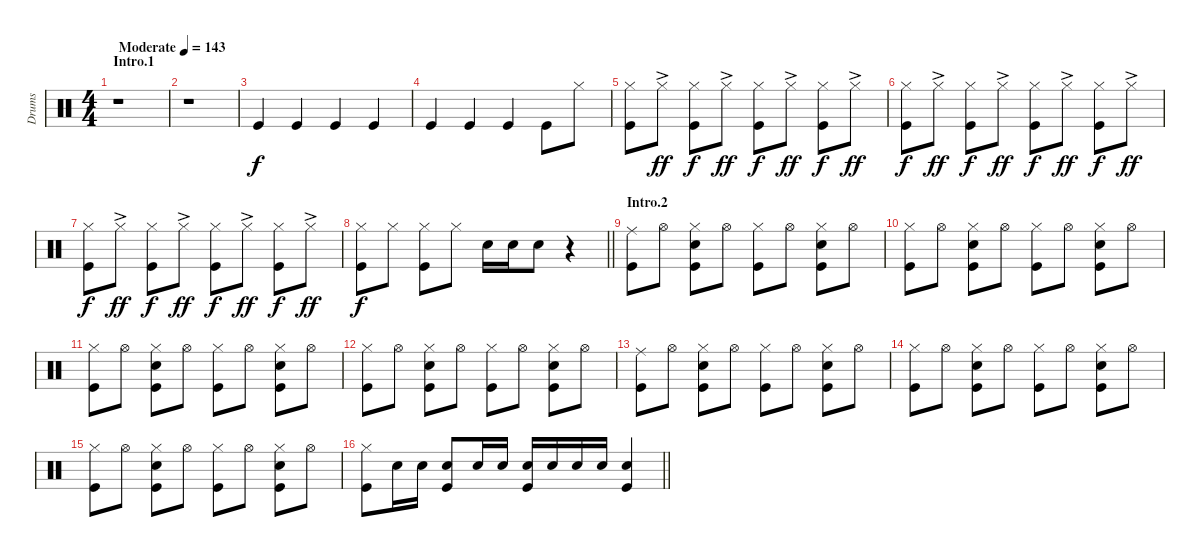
\track ("Drums" "Drums") {instrument percussion}
\staff {score}
\articulation defaults
\ts (4 4)
\section ("" "Intro.1")
\tempo (143 "Moderate")
\clef neutral
\ks c
r.1{dy f} |
r.1 |
"Kick (hit)".4 "Kick (hit)".4 "Kick (hit)".4 "Kick (hit)".4 |
"Kick (hit)".4 "Kick (hit)".4 "Kick (hit)".4 "Kick (hit)".8 "Hi-Hat (closed)".8 |
("Hi-Hat (closed)" "Kick (hit)").8 "Hi-Hat (closed)"{ac}.8{dy ff} ("Hi-Hat (closed)" "Kick (hit)").8{dy f} "Hi-Hat (closed)"{ac}.8{dy ff} ("Hi-Hat (closed)" "Kick (hit)").8{dy f} "Hi-Hat (closed)"{ac}.8{dy ff} ("Hi-Hat (closed)" "Kick (hit)").8{dy f} "Hi-Hat (closed)"{ac}.8{dy ff} |
("Hi-Hat (closed)" "Kick (hit)").8{dy f} "Hi-Hat (closed)"{ac}.8{dy ff} ("Hi-Hat (closed)" "Kick (hit)").8{dy f} "Hi-Hat (closed)"{ac}.8{dy ff} ("Hi-Hat (closed)" "Kick (hit)").8{dy f} "Hi-Hat (closed)"{ac}.8{dy ff} ("Hi-Hat (closed)" "Kick (hit)").8{dy f} "Hi-Hat (closed)"{ac}.8{dy ff} |
("Hi-Hat (closed)" "Kick (hit)").8{dy f} "Hi-Hat (closed)"{ac}.8{dy ff} ("Hi-Hat (closed)" "Kick (hit)").8{dy f} "Hi-Hat (closed)"{ac}.8{dy ff} ("Hi-Hat (closed)" "Kick (hit)").8{dy f} "Hi-Hat (closed)"{ac}.8{dy ff} ("Hi-Hat (closed)" "Kick (hit)").8{dy f} "Hi-Hat (closed)"{ac}.8{dy ff} |
\barLineRight lightlight
("Hi-Hat (closed)" "Kick (hit)").8{dy f} "Hi-Hat (closed)".8 ("Hi-Hat (closed)" "Kick (hit)").8 "Hi-Hat (closed)".8 "Snare (hit) 2".16 "Snare (hit) 2".16 "Snare (hit) 2".8 r.4 |
\section ("" "Intro.2")
("Ride (middle)" "Kick (hit)").8 "Hi-Hat (open)".8 ("Hi-Hat (closed)" "Snare (hit) 2" "Kick (hit)").8 "Hi-Hat (open)".8 ("Hi-Hat (closed)" "Kick (hit)").8 "Hi-Hat (open)".8 ("Hi-Hat (closed)" "Snare (hit) 2" "Kick (hit)").8 "Hi-Hat (open)".8 |
("Hi-Hat (closed)" "Kick (hit)").8 "Hi-Hat (open)".8 ("Hi-Hat (closed)" "Kick (hit)" "Snare (hit) 2").8 "Hi-Hat (open)".8 ("Hi-Hat (closed)" "Kick (hit)").8 "Hi-Hat (open)".8 ("Hi-Hat (closed)" "Kick (hit)" "Snare (hit) 2").8 "Hi-Hat (open)".8 |
("Hi-Hat (closed)" "Kick (hit)").8 "Hi-Hat (open)".8 ("Hi-Hat (closed)" "Kick (hit)" "Snare (hit) 2").8 "Hi-Hat (open)".8 ("Hi-Hat (closed)" "Kick (hit)").8 "Hi-Hat (open)".8 ("Hi-Hat (closed)" "Kick (hit)" "Snare (hit) 2").8 "Hi-Hat (open)".8 |
("Hi-Hat (closed)" "Kick (hit)").8 "Hi-Hat (open)".8 ("Hi-Hat (closed)" "Kick (hit)" "Snare (hit) 2").8 "Hi-Hat (open)".8 ("Hi-Hat (closed)" "Kick (hit)").8 "Hi-Hat (open)".8 ("Hi-Hat (closed)" "Kick (hit)" "Snare (hit) 2").8 "Hi-Hat (open)".8 |
("Ride (middle)" "Kick (hit)").8 "Hi-Hat (open)".8 ("Hi-Hat (closed)" "Snare (hit) 2" "Kick (hit)").8 "Hi-Hat (open)".8 ("Hi-Hat (closed)" "Kick (hit)").8 "Hi-Hat (open)".8 ("Hi-Hat (closed)" "Snare (hit) 2" "Kick (hit)").8 "Hi-Hat (open)".8 |
("Hi-Hat (closed)" "Kick (hit)").8 "Hi-Hat (open)".8 ("Hi-Hat (closed)" "Kick (hit)" "Snare (hit) 2").8 "Hi-Hat (open)".8 ("Hi-Hat (closed)" "Kick (hit)").8 "Hi-Hat (open)".8 ("Hi-Hat (closed)" "Kick (hit)" "Snare (hit) 2").8 "Hi-Hat (open)".8 |
("Hi-Hat (closed)" "Kick (hit)").8 "Hi-Hat (open)".8 ("Hi-Hat (closed)" "Kick (hit)" "Snare (hit) 2").8 "Hi-Hat (open)".8 ("Hi-Hat (closed)" "Kick (hit)").8 "Hi-Hat (open)".8 ("Hi-Hat (closed)" "Kick (hit)" "Snare (hit) 2").8 "Hi-Hat (open)".8 |
\barLineRight lightlight
("Hi-Hat (closed)" "Kick (hit)").8 "Snare (hit) 2".16 "Snare (hit) 2".16 ("Kick (hit)" "Snare (hit) 2").8 "Snare (hit) 2".16 "Snare (hit) 2".16 ("Kick (hit)" "Snare (hit) 2").16 "Snare (hit) 2".16 "Snare (hit) 2".16 "Snare (hit) 2".16 ("Kick (hit)" "Snare (hit) 2").4
